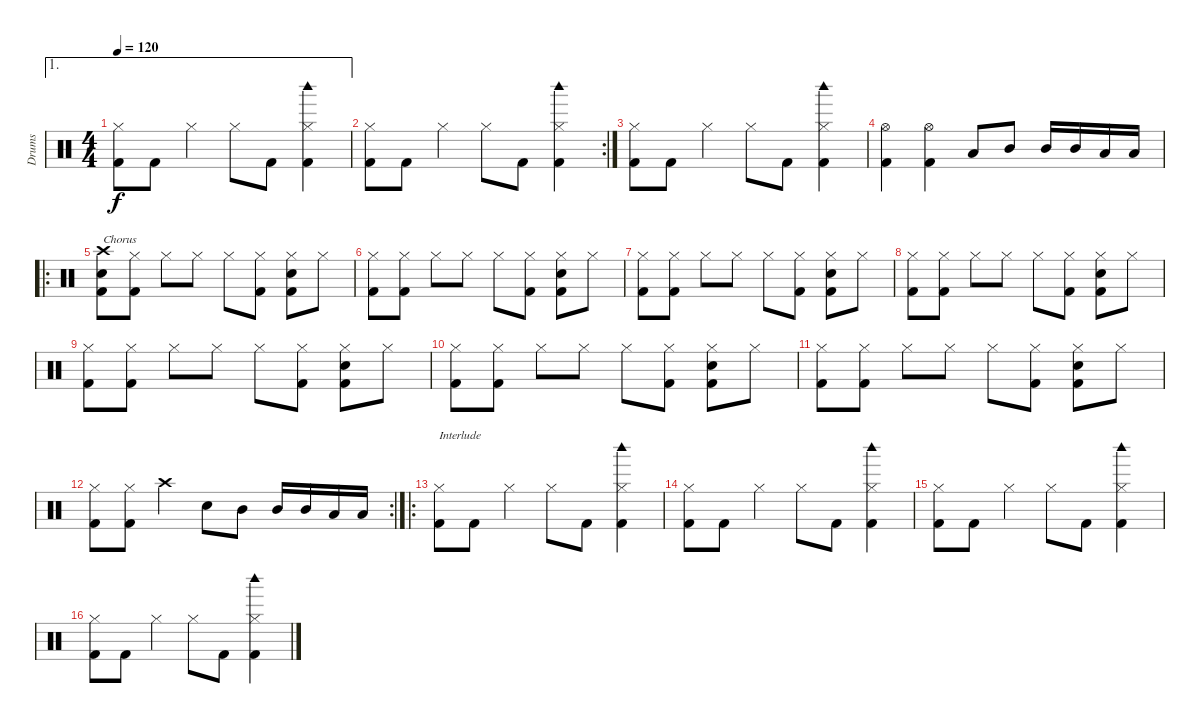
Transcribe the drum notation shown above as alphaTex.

\track ("Drums" "Drums") {instrument percussion}
\staff {score}
\articulation defaults
\ae 1
\ts (4 4)
\tempo 120
\clef neutral
\ks c
("Hi-Hat (closed)" "Kick (hit) 2").8{dy f} "Kick (hit) 2".8 "Hi-Hat (closed)".4 "Hi-Hat (closed)".8 "Kick (hit) 2".8 ("Hi-Hat (closed)" "Woodblock high (hit)" "Kick (hit) 2").4 |
\rc 2
("Hi-Hat (closed)" "Kick (hit) 2").8 "Kick (hit) 2".8 "Hi-Hat (closed)".4 "Hi-Hat (closed)".8 "Kick (hit) 2".8 ("Hi-Hat (closed)" "Woodblock high (hit)" "Kick (hit) 2").4 |
("Hi-Hat (closed)" "Kick (hit) 2").8 "Kick (hit) 2".8 "Hi-Hat (closed)".4 "Hi-Hat (closed)".8 "Kick (hit) 2".8 ("Hi-Hat (closed)" "Woodblock high (hit)" "Kick (hit) 2").4 |
("Hi-Hat (open)" "Kick (hit) 2").4 ("Hi-Hat (open)" "Kick (hit) 2").4 "Low Tom (hit)".8 "Mid Tom (hit)".8 "Mid Tom (hit)".16 "Mid Tom (hit)".16 "Low Tom (hit)".16 "Low Tom (hit)".16 |
\ro
("Crash high (hit)" "Snare (hit) 2" "Kick (hit) 2").8{txt "Chorus"} ("Hi-Hat (closed)" "Kick (hit) 2").8 "Hi-Hat (closed)".8 "Hi-Hat (closed)".8 "Hi-Hat (closed)".8 ("Hi-Hat (closed)" "Kick (hit) 2").8 ("Hi-Hat (closed)" "Snare (hit) 2" "Kick (hit) 2").8 "Hi-Hat (closed)".8 |
("Hi-Hat (closed)" "Kick (hit) 2").8 ("Hi-Hat (closed)" "Kick (hit) 2").8 "Hi-Hat (closed)".8 "Hi-Hat (closed)".8 "Hi-Hat (closed)".8 ("Hi-Hat (closed)" "Kick (hit) 2").8 ("Hi-Hat (closed)" "Snare (hit) 2" "Kick (hit) 2").8 "Hi-Hat (closed)".8 |
("Hi-Hat (closed)" "Kick (hit) 2").8 ("Hi-Hat (closed)" "Kick (hit) 2").8 "Hi-Hat (closed)".8 "Hi-Hat (closed)".8 "Hi-Hat (closed)".8 ("Hi-Hat (closed)" "Kick (hit) 2").8 ("Hi-Hat (closed)" "Snare (hit) 2" "Kick (hit) 2").8 "Hi-Hat (closed)".8 |
("Hi-Hat (closed)" "Kick (hit) 2").8 ("Hi-Hat (closed)" "Kick (hit) 2").8 "Hi-Hat (closed)".8 "Hi-Hat (closed)".8 "Hi-Hat (closed)".8 ("Hi-Hat (closed)" "Kick (hit) 2").8 ("Hi-Hat (closed)" "Snare (hit) 2" "Kick (hit) 2").8 "Hi-Hat (closed)".8 |
("Hi-Hat (closed)" "Kick (hit) 2").8 ("Hi-Hat (closed)" "Kick (hit) 2").8 "Hi-Hat (closed)".8 "Hi-Hat (closed)".8 "Hi-Hat (closed)".8 ("Hi-Hat (closed)" "Kick (hit) 2").8 ("Hi-Hat (closed)" "Snare (hit) 2" "Kick (hit) 2").8 "Hi-Hat (closed)".8 |
("Hi-Hat (closed)" "Kick (hit) 2").8 ("Hi-Hat (closed)" "Kick (hit) 2").8 "Hi-Hat (closed)".8 "Hi-Hat (closed)".8 "Hi-Hat (closed)".8 ("Hi-Hat (closed)" "Kick (hit) 2").8 ("Hi-Hat (closed)" "Snare (hit) 2" "Kick (hit) 2").8 "Hi-Hat (closed)".8 |
("Hi-Hat (closed)" "Kick (hit) 2").8 ("Hi-Hat (closed)" "Kick (hit) 2").8 "Hi-Hat (closed)".8 "Hi-Hat (closed)".8 "Hi-Hat (closed)".8 ("Hi-Hat (closed)" "Kick (hit) 2").8 ("Hi-Hat (closed)" "Snare (hit) 2" "Kick (hit) 2").8 "Hi-Hat (closed)".8 |
\rc 2
("Hi-Hat (closed)" "Kick (hit) 2").8 ("Hi-Hat (closed)" "Kick (hit) 2").8 "Crash high (hit)".4 "Snare (hit) 2".8 "Mid Tom (hit)".8 "Mid Tom (hit)".16 "Mid Tom (hit)".16 "Low Tom (hit)".16 "Low Tom (hit)".16 |
\ro
("Hi-Hat (closed)" "Kick (hit) 2").8{txt "Interlude"} "Kick (hit) 2".8 "Hi-Hat (closed)".4 "Hi-Hat (closed)".8 "Kick (hit) 2".8 ("Hi-Hat (closed)" "Woodblock high (hit)" "Kick (hit) 2").4 |
("Hi-Hat (closed)" "Kick (hit) 2").8 "Kick (hit) 2".8 "Hi-Hat (closed)".4 "Hi-Hat (closed)".8 "Kick (hit) 2".8 ("Hi-Hat (closed)" "Woodblock high (hit)" "Kick (hit) 2").4 |
("Hi-Hat (closed)" "Kick (hit) 2").8 "Kick (hit) 2".8 "Hi-Hat (closed)".4 "Hi-Hat (closed)".8 "Kick (hit) 2".8 ("Hi-Hat (closed)" "Woodblock high (hit)" "Kick (hit) 2").4 |
("Hi-Hat (closed)" "Kick (hit) 2").8 "Kick (hit) 2".8 "Hi-Hat (closed)".4 "Hi-Hat (closed)".8 "Kick (hit) 2".8 ("Hi-Hat (closed)" "Woodblock high (hit)" "Kick (hit) 2").4
